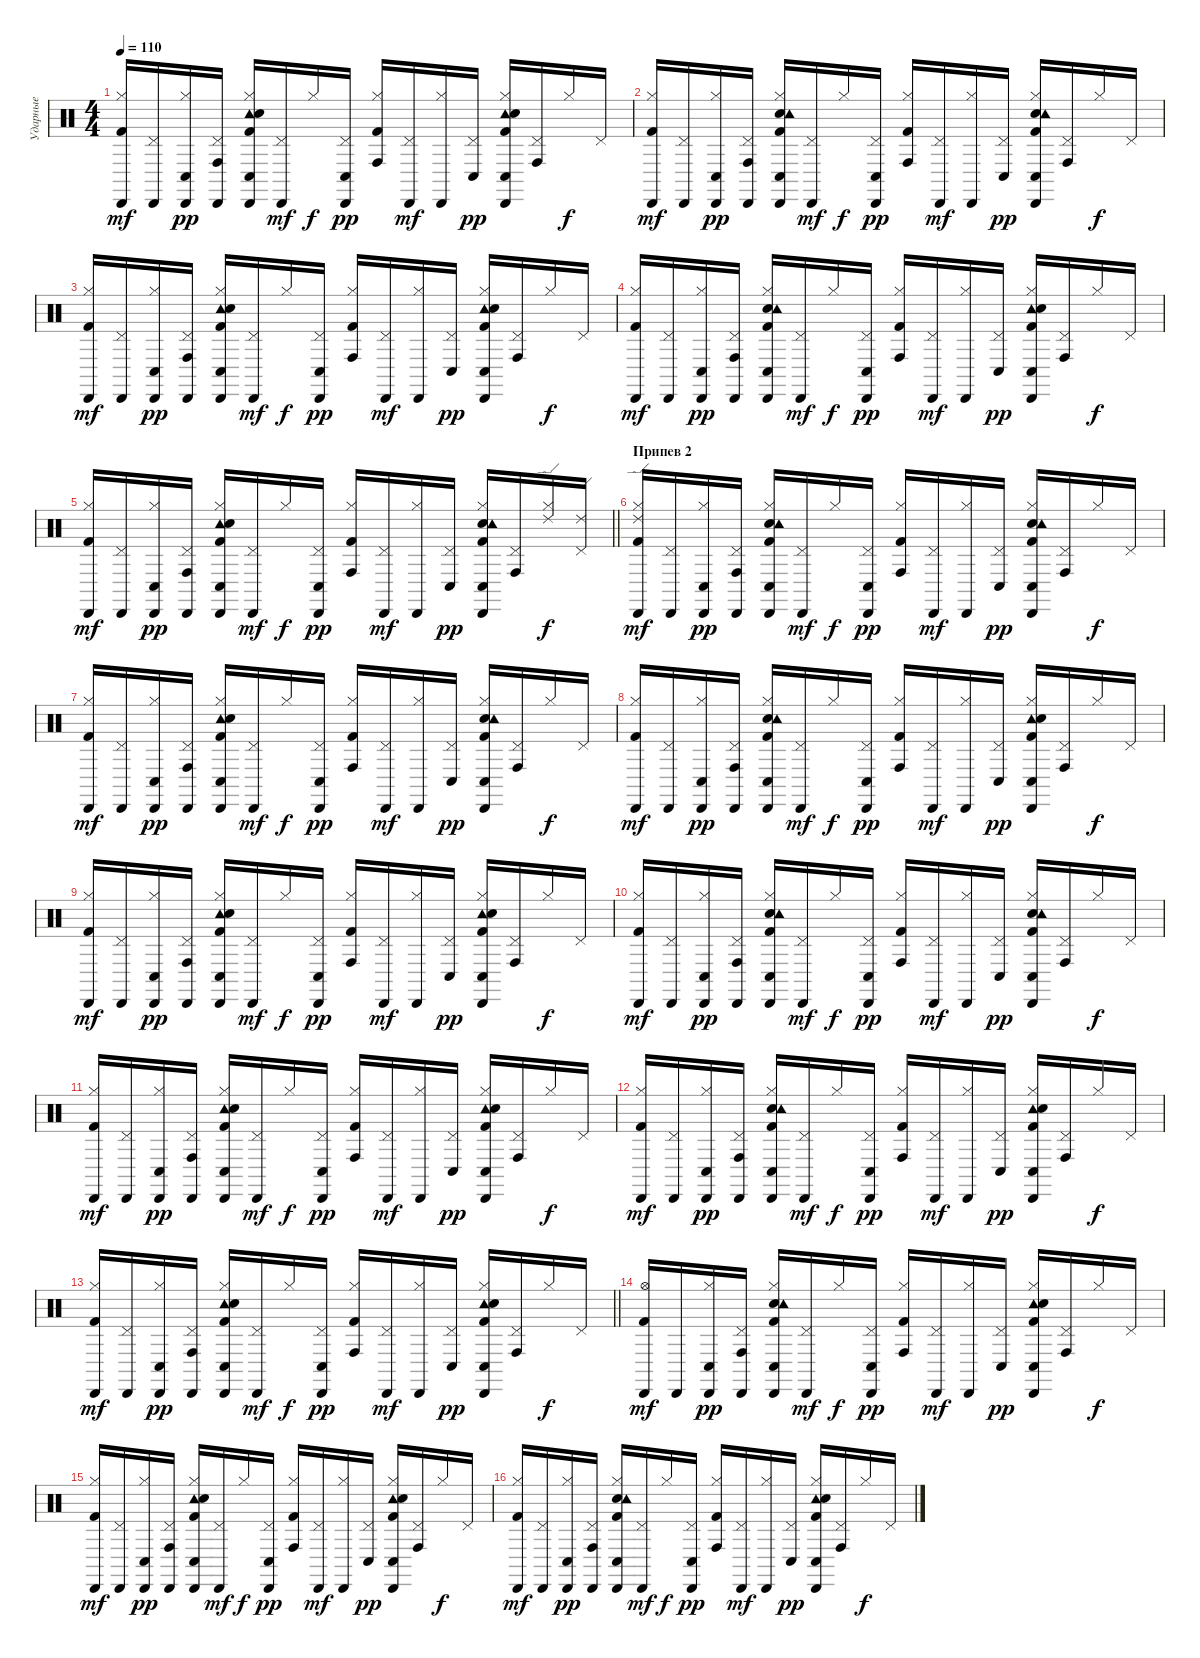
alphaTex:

\track ("Ударные" "Ударные") {instrument percussion}
\staff {score}
\articulation defaults
\ts (4 4)
\tempo 110
\clef neutral
\ks c
("Kick (hit) 2" "Hi-Hat (closed)" "Cabasa (hit)").16{dy mf} ("Pedal Hi-Hat (hit)" "Cabasa (hit)").16 ("Hi-Hat (closed)" "Cabasa (hit)" "Conga low (hit)").16{dy pp} ("Pedal Hi-Hat (hit)" "Cabasa (hit)" "Conga high (hit)").16 ("Tambourine (hit)" "Kick (hit) 2" "Snare (hit) 2" "Hi-Hat (closed)" "Cabasa (hit)" "Conga low (hit)").16 ("Pedal Hi-Hat (hit)" "Cabasa (hit)").16{dy mf} "Hi-Hat (closed)".16{dy f} ("Pedal Hi-Hat (hit)" "Cabasa (hit)" "Conga low (hit)").16{dy pp} ("Kick (hit) 2" "Hi-Hat (closed)" "Conga high (hit)").16 ("Pedal Hi-Hat (hit)" "Cabasa (hit)").16{dy mf} ("Hi-Hat (closed)" "Cabasa (hit)").16 ("Pedal Hi-Hat (hit)" "Conga low (hit)").16{dy pp} ("Tambourine (hit)" "Snare (hit) 2" "Kick (hit) 2" "Hi-Hat (closed)" "Cabasa (hit)" "Conga low (hit)").16 ("Pedal Hi-Hat (hit)" "Conga high (hit)").16 "Hi-Hat (closed)".16{dy f} "Pedal Hi-Hat (hit)".16 |
("Kick (hit) 2" "Hi-Hat (closed)" "Cabasa (hit)").16{dy mf} ("Pedal Hi-Hat (hit)" "Cabasa (hit)").16 ("Hi-Hat (closed)" "Cabasa (hit)" "Conga low (hit)").16{dy pp} ("Pedal Hi-Hat (hit)" "Cabasa (hit)" "Conga high (hit)").16 ("Snare (hit) 2" "Kick (hit) 2" "Tambourine (hit)" "Hi-Hat (closed)" "Cabasa (hit)" "Conga low (hit)").16 ("Pedal Hi-Hat (hit)" "Cabasa (hit)").16{dy mf} "Hi-Hat (closed)".16{dy f} ("Pedal Hi-Hat (hit)" "Cabasa (hit)" "Conga low (hit)").16{dy pp} ("Kick (hit) 2" "Hi-Hat (closed)" "Conga high (hit)").16 ("Pedal Hi-Hat (hit)" "Cabasa (hit)").16{dy mf} ("Hi-Hat (closed)" "Cabasa (hit)").16 ("Pedal Hi-Hat (hit)" "Conga low (hit)").16{dy pp} ("Snare (hit) 2" "Tambourine (hit)" "Kick (hit) 2" "Hi-Hat (closed)" "Cabasa (hit)" "Conga low (hit)").16 ("Pedal Hi-Hat (hit)" "Conga high (hit)").16 "Hi-Hat (closed)".16{dy f} "Pedal Hi-Hat (hit)".16 |
("Kick (hit) 2" "Hi-Hat (closed)" "Cabasa (hit)").16{dy mf} ("Pedal Hi-Hat (hit)" "Cabasa (hit)").16 ("Hi-Hat (closed)" "Cabasa (hit)" "Conga low (hit)").16{dy pp} ("Pedal Hi-Hat (hit)" "Cabasa (hit)" "Conga high (hit)").16 ("Tambourine (hit)" "Kick (hit) 2" "Snare (hit) 2" "Hi-Hat (closed)" "Cabasa (hit)" "Conga low (hit)").16 ("Pedal Hi-Hat (hit)" "Cabasa (hit)").16{dy mf} "Hi-Hat (closed)".16{dy f} ("Pedal Hi-Hat (hit)" "Cabasa (hit)" "Conga low (hit)").16{dy pp} ("Kick (hit) 2" "Hi-Hat (closed)" "Conga high (hit)").16 ("Pedal Hi-Hat (hit)" "Cabasa (hit)").16{dy mf} ("Hi-Hat (closed)" "Cabasa (hit)").16 ("Pedal Hi-Hat (hit)" "Conga low (hit)").16{dy pp} ("Tambourine (hit)" "Snare (hit) 2" "Kick (hit) 2" "Hi-Hat (closed)" "Cabasa (hit)" "Conga low (hit)").16 ("Pedal Hi-Hat (hit)" "Conga high (hit)").16 "Hi-Hat (closed)".16{dy f} "Pedal Hi-Hat (hit)".16 |
("Kick (hit) 2" "Hi-Hat (closed)" "Cabasa (hit)").16{dy mf} ("Pedal Hi-Hat (hit)" "Cabasa (hit)").16 ("Hi-Hat (closed)" "Cabasa (hit)" "Conga low (hit)").16{dy pp} ("Pedal Hi-Hat (hit)" "Cabasa (hit)" "Conga high (hit)").16 ("Kick (hit) 2" "Snare (hit) 2" "Tambourine (hit)" "Hi-Hat (closed)" "Cabasa (hit)" "Conga low (hit)").16 ("Pedal Hi-Hat (hit)" "Cabasa (hit)").16{dy mf} "Hi-Hat (closed)".16{dy f} ("Pedal Hi-Hat (hit)" "Cabasa (hit)" "Conga low (hit)").16{dy pp} ("Kick (hit) 2" "Hi-Hat (closed)" "Conga high (hit)").16 ("Pedal Hi-Hat (hit)" "Cabasa (hit)").16{dy mf} ("Hi-Hat (closed)" "Cabasa (hit)").16 ("Pedal Hi-Hat (hit)" "Conga low (hit)").16{dy pp} ("Tambourine (hit)" "Kick (hit) 2" "Snare (hit) 2" "Hi-Hat (closed)" "Cabasa (hit)" "Conga low (hit)").16 ("Pedal Hi-Hat (hit)" "Conga high (hit)").16 "Hi-Hat (closed)".16{dy f} "Pedal Hi-Hat (hit)".16 |
\barLineRight lightlight
("Kick (hit) 2" "Hi-Hat (closed)" "Cabasa (hit)").16{dy mf} ("Pedal Hi-Hat (hit)" "Cabasa (hit)").16 ("Hi-Hat (closed)" "Cabasa (hit)" "Conga low (hit)").16{dy pp} ("Pedal Hi-Hat (hit)" "Cabasa (hit)" "Conga high (hit)").16 ("Tambourine (hit)" "Snare (hit) 2" "Kick (hit) 2" "Hi-Hat (closed)" "Cabasa (hit)" "Conga low (hit)").16 ("Pedal Hi-Hat (hit)" "Cabasa (hit)").16{dy mf} "Hi-Hat (closed)".16{dy f} ("Pedal Hi-Hat (hit)" "Cabasa (hit)" "Conga low (hit)").16{dy pp} ("Kick (hit) 2" "Hi-Hat (closed)" "Conga high (hit)").16 ("Pedal Hi-Hat (hit)" "Cabasa (hit)").16{dy mf} ("Hi-Hat (closed)" "Cabasa (hit)").16 ("Pedal Hi-Hat (hit)" "Conga low (hit)").16{dy pp} ("Snare (hit) 2" "Tambourine (hit)" "Kick (hit) 2" "Hi-Hat (closed)" "Cabasa (hit)" "Conga low (hit)").16 ("Pedal Hi-Hat (hit)" "Conga high (hit)").16 ("Ride (edge) 2" "Hi-Hat (closed)").16{dy f} ("Ride (edge) 2" "Pedal Hi-Hat (hit)").16 |
\section ("" "Припев 2")
("Kick (hit) 2" "Hi-Hat (closed)" "Ride (edge) 2" "Cabasa (hit)").16{dy mf} ("Pedal Hi-Hat (hit)" "Cabasa (hit)").16 ("Hi-Hat (closed)" "Cabasa (hit)" "Conga low (hit)").16{dy pp} ("Pedal Hi-Hat (hit)" "Cabasa (hit)" "Conga high (hit)").16 ("Snare (hit) 2" "Kick (hit) 2" "Tambourine (hit)" "Hi-Hat (closed)" "Cabasa (hit)" "Conga low (hit)").16 ("Pedal Hi-Hat (hit)" "Cabasa (hit)").16{dy mf} "Hi-Hat (closed)".16{dy f} ("Pedal Hi-Hat (hit)" "Cabasa (hit)" "Conga low (hit)").16{dy pp} ("Kick (hit) 2" "Hi-Hat (closed)" "Conga high (hit)").16 ("Pedal Hi-Hat (hit)" "Cabasa (hit)").16{dy mf} ("Hi-Hat (closed)" "Cabasa (hit)").16 ("Pedal Hi-Hat (hit)" "Conga low (hit)").16{dy pp} ("Snare (hit) 2" "Tambourine (hit)" "Kick (hit) 2" "Hi-Hat (closed)" "Cabasa (hit)" "Conga low (hit)").16 ("Pedal Hi-Hat (hit)" "Conga high (hit)").16 "Hi-Hat (closed)".16{dy f} "Pedal Hi-Hat (hit)".16 |
("Kick (hit) 2" "Hi-Hat (closed)" "Cabasa (hit)").16{dy mf} ("Pedal Hi-Hat (hit)" "Cabasa (hit)").16 ("Hi-Hat (closed)" "Cabasa (hit)" "Conga low (hit)").16{dy pp} ("Pedal Hi-Hat (hit)" "Cabasa (hit)" "Conga high (hit)").16 ("Tambourine (hit)" "Snare (hit) 2" "Kick (hit) 2" "Hi-Hat (closed)" "Cabasa (hit)" "Conga low (hit)").16 ("Pedal Hi-Hat (hit)" "Cabasa (hit)").16{dy mf} "Hi-Hat (closed)".16{dy f} ("Pedal Hi-Hat (hit)" "Cabasa (hit)" "Conga low (hit)").16{dy pp} ("Kick (hit) 2" "Hi-Hat (closed)" "Conga high (hit)").16 ("Pedal Hi-Hat (hit)" "Cabasa (hit)").16{dy mf} ("Hi-Hat (closed)" "Cabasa (hit)").16 ("Pedal Hi-Hat (hit)" "Conga low (hit)").16{dy pp} ("Snare (hit) 2" "Tambourine (hit)" "Kick (hit) 2" "Hi-Hat (closed)" "Cabasa (hit)" "Conga low (hit)").16 ("Pedal Hi-Hat (hit)" "Conga high (hit)").16 "Hi-Hat (closed)".16{dy f} "Pedal Hi-Hat (hit)".16 |
("Kick (hit) 2" "Hi-Hat (closed)" "Cabasa (hit)").16{dy mf} ("Pedal Hi-Hat (hit)" "Cabasa (hit)").16 ("Hi-Hat (closed)" "Cabasa (hit)" "Conga low (hit)").16{dy pp} ("Pedal Hi-Hat (hit)" "Cabasa (hit)" "Conga high (hit)").16 ("Kick (hit) 2" "Snare (hit) 2" "Tambourine (hit)" "Hi-Hat (closed)" "Cabasa (hit)" "Conga low (hit)").16 ("Pedal Hi-Hat (hit)" "Cabasa (hit)").16{dy mf} "Hi-Hat (closed)".16{dy f} ("Pedal Hi-Hat (hit)" "Cabasa (hit)" "Conga low (hit)").16{dy pp} ("Kick (hit) 2" "Hi-Hat (closed)" "Conga high (hit)").16 ("Pedal Hi-Hat (hit)" "Cabasa (hit)").16{dy mf} ("Hi-Hat (closed)" "Cabasa (hit)").16 ("Pedal Hi-Hat (hit)" "Conga low (hit)").16{dy pp} ("Tambourine (hit)" "Kick (hit) 2" "Snare (hit) 2" "Hi-Hat (closed)" "Cabasa (hit)" "Conga low (hit)").16 ("Pedal Hi-Hat (hit)" "Conga high (hit)").16 "Hi-Hat (closed)".16{dy f} "Pedal Hi-Hat (hit)".16 |
("Kick (hit) 2" "Hi-Hat (closed)" "Cabasa (hit)").16{dy mf} ("Pedal Hi-Hat (hit)" "Cabasa (hit)").16 ("Hi-Hat (closed)" "Cabasa (hit)" "Conga low (hit)").16{dy pp} ("Pedal Hi-Hat (hit)" "Cabasa (hit)" "Conga high (hit)").16 ("Tambourine (hit)" "Snare (hit) 2" "Kick (hit) 2" "Hi-Hat (closed)" "Cabasa (hit)" "Conga low (hit)").16 ("Pedal Hi-Hat (hit)" "Cabasa (hit)").16{dy mf} "Hi-Hat (closed)".16{dy f} ("Pedal Hi-Hat (hit)" "Cabasa (hit)" "Conga low (hit)").16{dy pp} ("Kick (hit) 2" "Hi-Hat (closed)" "Conga high (hit)").16 ("Pedal Hi-Hat (hit)" "Cabasa (hit)").16{dy mf} ("Hi-Hat (closed)" "Cabasa (hit)").16 ("Pedal Hi-Hat (hit)" "Conga low (hit)").16{dy pp} ("Kick (hit) 2" "Tambourine (hit)" "Snare (hit) 2" "Hi-Hat (closed)" "Cabasa (hit)" "Conga low (hit)").16 ("Pedal Hi-Hat (hit)" "Conga high (hit)").16 "Hi-Hat (closed)".16{dy f} "Pedal Hi-Hat (hit)".16 |
("Kick (hit) 2" "Hi-Hat (closed)" "Cabasa (hit)").16{dy mf} ("Pedal Hi-Hat (hit)" "Cabasa (hit)").16 ("Hi-Hat (closed)" "Cabasa (hit)" "Conga low (hit)").16{dy pp} ("Pedal Hi-Hat (hit)" "Cabasa (hit)" "Conga high (hit)").16 ("Kick (hit) 2" "Snare (hit) 2" "Tambourine (hit)" "Hi-Hat (closed)" "Cabasa (hit)" "Conga low (hit)").16 ("Pedal Hi-Hat (hit)" "Cabasa (hit)").16{dy mf} "Hi-Hat (closed)".16{dy f} ("Pedal Hi-Hat (hit)" "Cabasa (hit)" "Conga low (hit)").16{dy pp} ("Kick (hit) 2" "Hi-Hat (closed)" "Conga high (hit)").16 ("Pedal Hi-Hat (hit)" "Cabasa (hit)").16{dy mf} ("Hi-Hat (closed)" "Cabasa (hit)").16 ("Pedal Hi-Hat (hit)" "Conga low (hit)").16{dy pp} ("Snare (hit) 2" "Tambourine (hit)" "Kick (hit) 2" "Hi-Hat (closed)" "Cabasa (hit)" "Conga low (hit)").16 ("Pedal Hi-Hat (hit)" "Conga high (hit)").16 "Hi-Hat (closed)".16{dy f} "Pedal Hi-Hat (hit)".16 |
("Kick (hit) 2" "Hi-Hat (closed)" "Cabasa (hit)").16{dy mf} ("Pedal Hi-Hat (hit)" "Cabasa (hit)").16 ("Hi-Hat (closed)" "Cabasa (hit)" "Conga low (hit)").16{dy pp} ("Pedal Hi-Hat (hit)" "Cabasa (hit)" "Conga high (hit)").16 ("Tambourine (hit)" "Kick (hit) 2" "Snare (hit) 2" "Hi-Hat (closed)" "Cabasa (hit)" "Conga low (hit)").16 ("Pedal Hi-Hat (hit)" "Cabasa (hit)").16{dy mf} "Hi-Hat (closed)".16{dy f} ("Pedal Hi-Hat (hit)" "Cabasa (hit)" "Conga low (hit)").16{dy pp} ("Kick (hit) 2" "Hi-Hat (closed)" "Conga high (hit)").16 ("Pedal Hi-Hat (hit)" "Cabasa (hit)").16{dy mf} ("Hi-Hat (closed)" "Cabasa (hit)").16 ("Pedal Hi-Hat (hit)" "Conga low (hit)").16{dy pp} ("Tambourine (hit)" "Snare (hit) 2" "Kick (hit) 2" "Hi-Hat (closed)" "Cabasa (hit)" "Conga low (hit)").16 ("Pedal Hi-Hat (hit)" "Conga high (hit)").16 "Hi-Hat (closed)".16{dy f} "Pedal Hi-Hat (hit)".16 |
("Kick (hit) 2" "Hi-Hat (closed)" "Cabasa (hit)").16{dy mf} ("Pedal Hi-Hat (hit)" "Cabasa (hit)").16 ("Hi-Hat (closed)" "Cabasa (hit)" "Conga low (hit)").16{dy pp} ("Pedal Hi-Hat (hit)" "Cabasa (hit)" "Conga high (hit)").16 ("Snare (hit) 2" "Kick (hit) 2" "Tambourine (hit)" "Hi-Hat (closed)" "Cabasa (hit)" "Conga low (hit)").16 ("Pedal Hi-Hat (hit)" "Cabasa (hit)").16{dy mf} "Hi-Hat (closed)".16{dy f} ("Pedal Hi-Hat (hit)" "Cabasa (hit)" "Conga low (hit)").16{dy pp} ("Kick (hit) 2" "Hi-Hat (closed)" "Conga high (hit)").16 ("Pedal Hi-Hat (hit)" "Cabasa (hit)").16{dy mf} ("Hi-Hat (closed)" "Cabasa (hit)").16 ("Pedal Hi-Hat (hit)" "Conga low (hit)").16{dy pp} ("Tambourine (hit)" "Snare (hit) 2" "Kick (hit) 2" "Hi-Hat (closed)" "Cabasa (hit)" "Conga low (hit)").16 ("Pedal Hi-Hat (hit)" "Conga high (hit)").16 "Hi-Hat (closed)".16{dy f} "Pedal Hi-Hat (hit)".16 |
\barLineRight lightlight
("Kick (hit) 2" "Hi-Hat (closed)" "Cabasa (hit)").16{dy mf} ("Pedal Hi-Hat (hit)" "Cabasa (hit)").16 ("Hi-Hat (closed)" "Cabasa (hit)" "Conga low (hit)").16{dy pp} ("Pedal Hi-Hat (hit)" "Cabasa (hit)" "Conga high (hit)").16 ("Tambourine (hit)" "Kick (hit) 2" "Snare (hit) 2" "Hi-Hat (closed)" "Cabasa (hit)" "Conga low (hit)").16 ("Pedal Hi-Hat (hit)" "Cabasa (hit)").16{dy mf} "Hi-Hat (closed)".16{dy f} ("Pedal Hi-Hat (hit)" "Cabasa (hit)" "Conga low (hit)").16{dy pp} ("Kick (hit) 2" "Hi-Hat (closed)" "Conga high (hit)").16 ("Pedal Hi-Hat (hit)" "Cabasa (hit)").16{dy mf} ("Hi-Hat (closed)" "Cabasa (hit)").16 ("Pedal Hi-Hat (hit)" "Conga low (hit)").16{dy pp} ("Tambourine (hit)" "Kick (hit) 2" "Snare (hit) 2" "Hi-Hat (closed)" "Cabasa (hit)" "Conga low (hit)").16 ("Pedal Hi-Hat (hit)" "Conga high (hit)").16 "Hi-Hat (closed)".16{dy f} "Pedal Hi-Hat (hit)".16 |
("Kick (hit) 2" "Hi-Hat (open)" "Cabasa (hit)").16{dy mf} "Cabasa (hit)".16 ("Hi-Hat (closed)" "Cabasa (hit)" "Conga low (hit)").16{dy pp} ("Pedal Hi-Hat (hit)" "Cabasa (hit)" "Conga high (hit)").16 ("Kick (hit) 2" "Snare (hit) 2" "Tambourine (hit)" "Hi-Hat (closed)" "Cabasa (hit)" "Conga low (hit)").16 ("Pedal Hi-Hat (hit)" "Cabasa (hit)").16{dy mf} "Hi-Hat (closed)".16{dy f} ("Pedal Hi-Hat (hit)" "Cabasa (hit)" "Conga low (hit)").16{dy pp} ("Kick (hit) 2" "Hi-Hat (closed)" "Conga high (hit)").16 ("Pedal Hi-Hat (hit)" "Cabasa (hit)").16{dy mf} ("Hi-Hat (closed)" "Cabasa (hit)").16 ("Pedal Hi-Hat (hit)" "Conga low (hit)").16{dy pp} ("Kick (hit) 2" "Tambourine (hit)" "Snare (hit) 2" "Hi-Hat (closed)" "Cabasa (hit)" "Conga low (hit)").16 ("Pedal Hi-Hat (hit)" "Conga high (hit)").16 "Hi-Hat (closed)".16{dy f} "Pedal Hi-Hat (hit)".16 |
("Kick (hit) 2" "Hi-Hat (closed)" "Cabasa (hit)").16{dy mf} ("Pedal Hi-Hat (hit)" "Cabasa (hit)").16 ("Hi-Hat (closed)" "Cabasa (hit)" "Conga low (hit)").16{dy pp} ("Pedal Hi-Hat (hit)" "Cabasa (hit)" "Conga high (hit)").16 ("Tambourine (hit)" "Snare (hit) 2" "Kick (hit) 2" "Hi-Hat (closed)" "Cabasa (hit)" "Conga low (hit)").16 ("Pedal Hi-Hat (hit)" "Cabasa (hit)").16{dy mf} "Hi-Hat (closed)".16{dy f} ("Pedal Hi-Hat (hit)" "Cabasa (hit)" "Conga low (hit)").16{dy pp} ("Kick (hit) 2" "Hi-Hat (closed)" "Conga high (hit)").16 ("Pedal Hi-Hat (hit)" "Cabasa (hit)").16{dy mf} ("Hi-Hat (closed)" "Cabasa (hit)").16 ("Pedal Hi-Hat (hit)" "Conga low (hit)").16{dy pp} ("Kick (hit) 2" "Tambourine (hit)" "Snare (hit) 2" "Hi-Hat (closed)" "Cabasa (hit)" "Conga low (hit)").16 ("Pedal Hi-Hat (hit)" "Conga high (hit)").16 "Hi-Hat (closed)".16{dy f} "Pedal Hi-Hat (hit)".16 |
("Kick (hit) 2" "Hi-Hat (closed)" "Cabasa (hit)").16{dy mf} ("Pedal Hi-Hat (hit)" "Cabasa (hit)").16 ("Hi-Hat (closed)" "Cabasa (hit)" "Conga low (hit)").16{dy pp} ("Pedal Hi-Hat (hit)" "Cabasa (hit)" "Conga high (hit)").16 ("Kick (hit) 2" "Snare (hit) 2" "Tambourine (hit)" "Hi-Hat (closed)" "Cabasa (hit)" "Conga low (hit)").16 ("Pedal Hi-Hat (hit)" "Cabasa (hit)").16{dy mf} "Hi-Hat (closed)".16{dy f} ("Pedal Hi-Hat (hit)" "Cabasa (hit)" "Conga low (hit)").16{dy pp} ("Kick (hit) 2" "Hi-Hat (closed)" "Conga high (hit)").16 ("Pedal Hi-Hat (hit)" "Cabasa (hit)").16{dy mf} ("Hi-Hat (closed)" "Cabasa (hit)").16 ("Pedal Hi-Hat (hit)" "Conga low (hit)").16{dy pp} ("Tambourine (hit)" "Kick (hit) 2" "Snare (hit) 2" "Hi-Hat (closed)" "Cabasa (hit)" "Conga low (hit)").16 ("Pedal Hi-Hat (hit)" "Conga high (hit)").16 "Hi-Hat (closed)".16{dy f} "Pedal Hi-Hat (hit)".16
